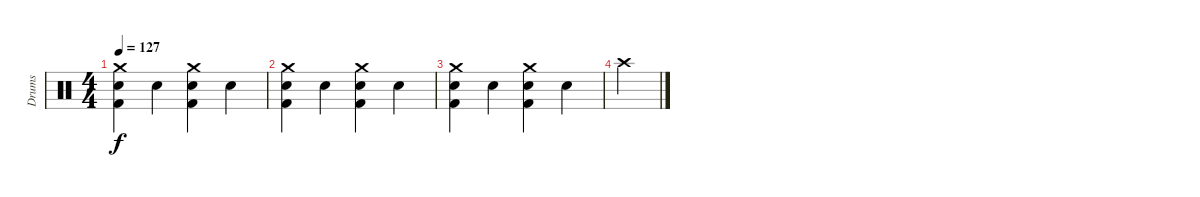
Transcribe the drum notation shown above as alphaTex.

\track ("Drums" "Drums") {instrument percussion}
\staff {score}
\articulation defaults
\ts (4 4)
\tempo 127
\clef neutral
\ks c
("Crash medium (hit)" "Kick (hit) 2" "Snare (hit) 2").4{dy f} "Snare (hit) 2".4 ("Crash medium (hit)" "Kick (hit) 2" "Snare (hit) 2").4 "Snare (hit) 2".4 |
("Crash medium (hit)" "Kick (hit) 2" "Snare (hit) 2").4 "Snare (hit) 2".4 ("Crash medium (hit)" "Kick (hit) 2" "Snare (hit) 2").4 "Snare (hit) 2".4 |
("Crash medium (hit)" "Kick (hit) 2" "Snare (hit) 2").4 "Snare (hit) 2".4 ("Crash medium (hit)" "Kick (hit) 2" "Snare (hit) 2").4 "Snare (hit) 2".4 |
"Crash high (hit)".4
